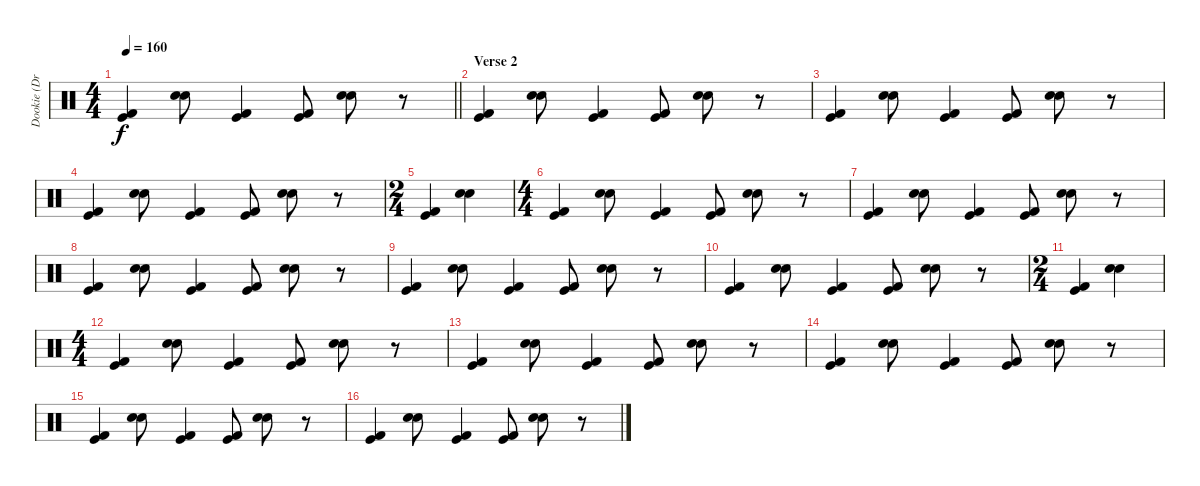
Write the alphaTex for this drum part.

\track ("Dookie (Drums)" "Dookie (Dr") {instrument percussion}
\staff {score}
\articulation defaults
\ts (4 4)
\tempo 160
\clef neutral
\barLineRight lightlight
\ks c
("Kick (hit) 2" "Kick (hit)").4{dy f} ("Electric Snare (hit)" "Electric Snare (hit)").8 ("Kick (hit) 2" "Kick (hit)").4 ("Kick (hit) 2" "Kick (hit)").8 ("Electric Snare (hit)" "Electric Snare (hit)").8 r.8 |
\section ("" "Verse 2")
("Kick (hit) 2" "Kick (hit)").4 ("Electric Snare (hit)" "Electric Snare (hit)").8 ("Kick (hit) 2" "Kick (hit)").4 ("Kick (hit) 2" "Kick (hit)").8 ("Electric Snare (hit)" "Electric Snare (hit)").8 r.8 |
("Kick (hit) 2" "Kick (hit)").4 ("Electric Snare (hit)" "Electric Snare (hit)").8 ("Kick (hit) 2" "Kick (hit)").4 ("Kick (hit) 2" "Kick (hit)").8 ("Electric Snare (hit)" "Electric Snare (hit)").8 r.8 |
("Kick (hit) 2" "Kick (hit)").4 ("Electric Snare (hit)" "Electric Snare (hit)").8 ("Kick (hit) 2" "Kick (hit)").4 ("Kick (hit) 2" "Kick (hit)").8 ("Electric Snare (hit)" "Electric Snare (hit)").8 r.8 |
\ts (2 4)
("Kick (hit) 2" "Kick (hit)").4 ("Electric Snare (hit)" "Electric Snare (hit)").4 |
\ts (4 4)
("Kick (hit) 2" "Kick (hit)").4 ("Electric Snare (hit)" "Electric Snare (hit)").8 ("Kick (hit) 2" "Kick (hit)").4 ("Kick (hit) 2" "Kick (hit)").8 ("Electric Snare (hit)" "Electric Snare (hit)").8 r.8 |
("Kick (hit) 2" "Kick (hit)").4 ("Electric Snare (hit)" "Electric Snare (hit)").8 ("Kick (hit) 2" "Kick (hit)").4 ("Kick (hit) 2" "Kick (hit)").8 ("Electric Snare (hit)" "Electric Snare (hit)").8 r.8 |
("Kick (hit) 2" "Kick (hit)").4 ("Electric Snare (hit)" "Electric Snare (hit)").8 ("Kick (hit) 2" "Kick (hit)").4 ("Kick (hit) 2" "Kick (hit)").8 ("Electric Snare (hit)" "Electric Snare (hit)").8 r.8 |
("Kick (hit) 2" "Kick (hit)").4 ("Electric Snare (hit)" "Electric Snare (hit)").8 ("Kick (hit) 2" "Kick (hit)").4 ("Kick (hit) 2" "Kick (hit)").8 ("Electric Snare (hit)" "Electric Snare (hit)").8 r.8 |
("Kick (hit) 2" "Kick (hit)").4 ("Electric Snare (hit)" "Electric Snare (hit)").8 ("Kick (hit) 2" "Kick (hit)").4 ("Kick (hit) 2" "Kick (hit)").8 ("Electric Snare (hit)" "Electric Snare (hit)").8 r.8 |
\ts (2 4)
("Kick (hit) 2" "Kick (hit)").4 ("Electric Snare (hit)" "Electric Snare (hit)").4 |
\ts (4 4)
("Kick (hit) 2" "Kick (hit)").4 ("Electric Snare (hit)" "Electric Snare (hit)").8 ("Kick (hit) 2" "Kick (hit)").4 ("Kick (hit) 2" "Kick (hit)").8 ("Electric Snare (hit)" "Electric Snare (hit)").8 r.8 |
("Kick (hit) 2" "Kick (hit)").4 ("Electric Snare (hit)" "Electric Snare (hit)").8 ("Kick (hit) 2" "Kick (hit)").4 ("Kick (hit) 2" "Kick (hit)").8 ("Electric Snare (hit)" "Electric Snare (hit)").8 r.8 |
("Kick (hit) 2" "Kick (hit)").4 ("Electric Snare (hit)" "Electric Snare (hit)").8 ("Kick (hit) 2" "Kick (hit)").4 ("Kick (hit) 2" "Kick (hit)").8 ("Electric Snare (hit)" "Electric Snare (hit)").8 r.8 |
("Kick (hit) 2" "Kick (hit)").4 ("Electric Snare (hit)" "Electric Snare (hit)").8 ("Kick (hit) 2" "Kick (hit)").4 ("Kick (hit) 2" "Kick (hit)").8 ("Electric Snare (hit)" "Electric Snare (hit)").8 r.8 |
("Kick (hit) 2" "Kick (hit)").4 ("Electric Snare (hit)" "Electric Snare (hit)").8 ("Kick (hit) 2" "Kick (hit)").4 ("Kick (hit) 2" "Kick (hit)").8 ("Electric Snare (hit)" "Electric Snare (hit)").8 r.8
